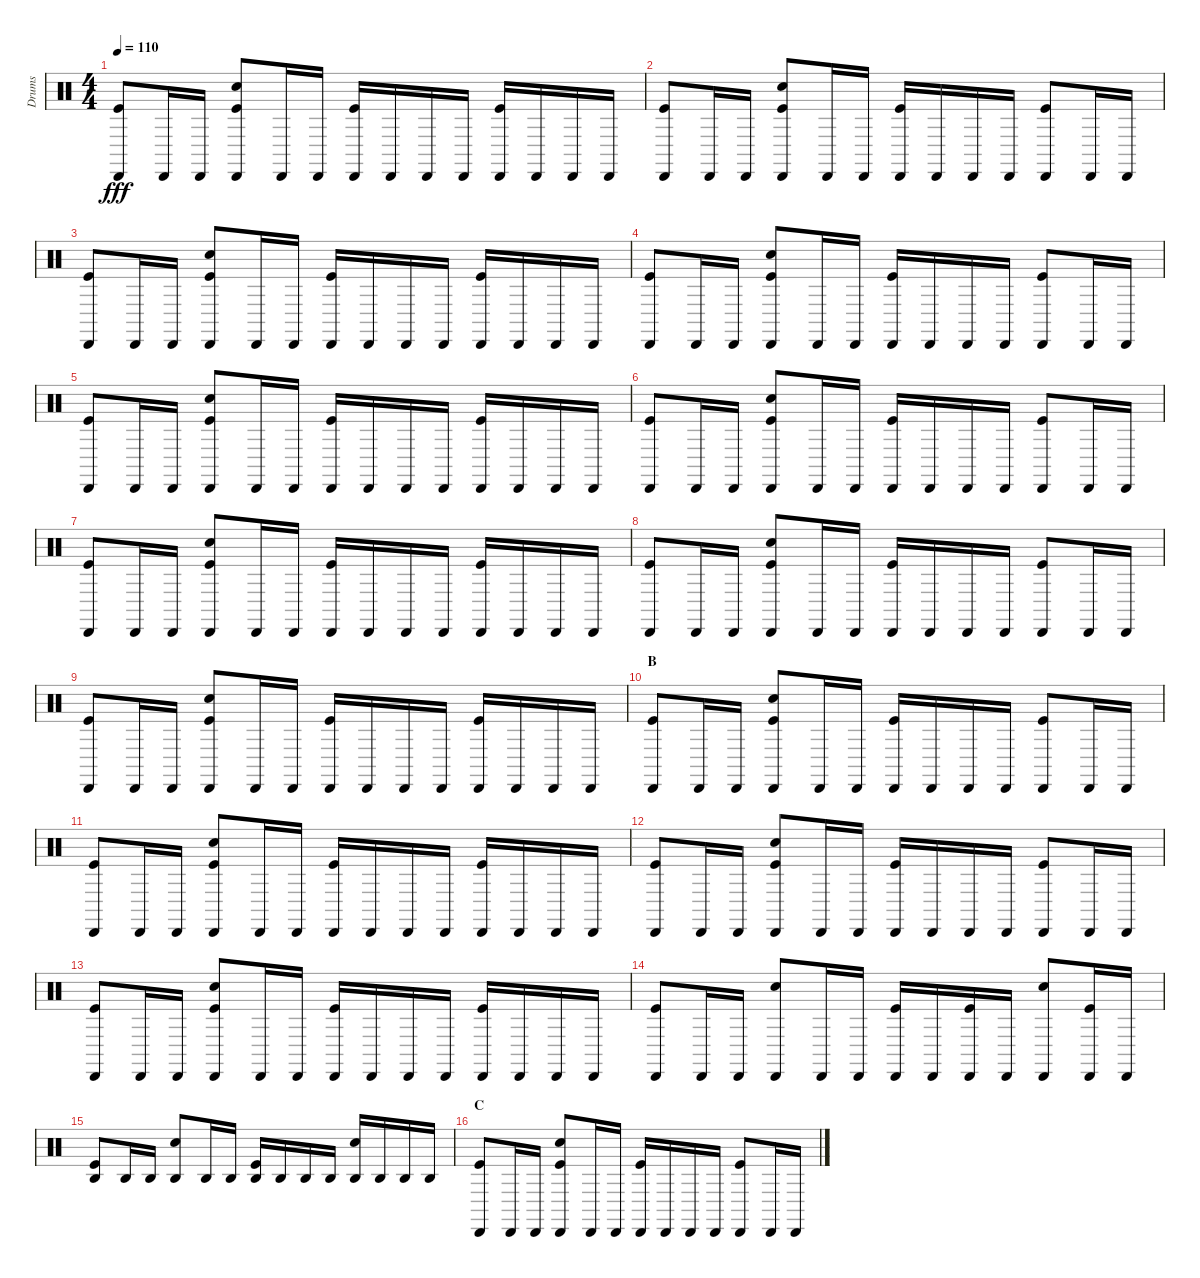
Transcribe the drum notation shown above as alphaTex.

\track ("Drums" "Drums") {instrument percussion}
\staff {score}
\articulation defaults
\ts (4 4)
\tempo 110
\clef neutral
\ks c
("Cabasa (hit)" "Kick (hit)").8{dy fff} "Cabasa (hit)".16 "Cabasa (hit)".16 ("Cabasa (hit)" "Snare (hit) 2" "Kick (hit)").8 "Cabasa (hit)".16 "Cabasa (hit)".16 ("Cabasa (hit)" "Kick (hit)").16 "Cabasa (hit)".16 "Cabasa (hit)".16 "Cabasa (hit)".16 ("Cabasa (hit)" "Kick (hit)").16 "Cabasa (hit)".16 "Cabasa (hit)".16 "Cabasa (hit)".16 |
("Cabasa (hit)" "Kick (hit)").8 "Cabasa (hit)".16 "Cabasa (hit)".16 ("Cabasa (hit)" "Snare (hit) 2" "Kick (hit)").8 "Cabasa (hit)".16 "Cabasa (hit)".16 ("Cabasa (hit)" "Kick (hit)").16 "Cabasa (hit)".16 "Cabasa (hit)".16 "Cabasa (hit)".16 ("Cabasa (hit)" "Kick (hit)").8 "Cabasa (hit)".16 "Cabasa (hit)".16 |
("Cabasa (hit)" "Kick (hit)").8 "Cabasa (hit)".16 "Cabasa (hit)".16 ("Cabasa (hit)" "Snare (hit) 2" "Kick (hit)").8 "Cabasa (hit)".16 "Cabasa (hit)".16 ("Cabasa (hit)" "Kick (hit)").16 "Cabasa (hit)".16 "Cabasa (hit)".16 "Cabasa (hit)".16 ("Cabasa (hit)" "Kick (hit)").16 "Cabasa (hit)".16 "Cabasa (hit)".16 "Cabasa (hit)".16 |
("Cabasa (hit)" "Kick (hit)").8 "Cabasa (hit)".16 "Cabasa (hit)".16 ("Cabasa (hit)" "Snare (hit) 2" "Kick (hit)").8 "Cabasa (hit)".16 "Cabasa (hit)".16 ("Cabasa (hit)" "Kick (hit)").16 "Cabasa (hit)".16 "Cabasa (hit)".16 "Cabasa (hit)".16 ("Cabasa (hit)" "Kick (hit)").8 "Cabasa (hit)".16 "Cabasa (hit)".16 |
("Cabasa (hit)" "Kick (hit)").8 "Cabasa (hit)".16 "Cabasa (hit)".16 ("Cabasa (hit)" "Snare (hit) 2" "Kick (hit)").8 "Cabasa (hit)".16 "Cabasa (hit)".16 ("Cabasa (hit)" "Kick (hit)").16 "Cabasa (hit)".16 "Cabasa (hit)".16 "Cabasa (hit)".16 ("Cabasa (hit)" "Kick (hit)").16 "Cabasa (hit)".16 "Cabasa (hit)".16 "Cabasa (hit)".16 |
("Cabasa (hit)" "Kick (hit)").8 "Cabasa (hit)".16 "Cabasa (hit)".16 ("Cabasa (hit)" "Snare (hit) 2" "Kick (hit)").8 "Cabasa (hit)".16 "Cabasa (hit)".16 ("Cabasa (hit)" "Kick (hit)").16 "Cabasa (hit)".16 "Cabasa (hit)".16 "Cabasa (hit)".16 ("Cabasa (hit)" "Kick (hit)").8 "Cabasa (hit)".16 "Cabasa (hit)".16 |
("Cabasa (hit)" "Kick (hit)").8 "Cabasa (hit)".16 "Cabasa (hit)".16 ("Cabasa (hit)" "Snare (hit) 2" "Kick (hit)").8 "Cabasa (hit)".16 "Cabasa (hit)".16 ("Cabasa (hit)" "Kick (hit)").16 "Cabasa (hit)".16 "Cabasa (hit)".16 "Cabasa (hit)".16 ("Cabasa (hit)" "Kick (hit)").16 "Cabasa (hit)".16 "Cabasa (hit)".16 "Cabasa (hit)".16 |
("Cabasa (hit)" "Kick (hit)").8 "Cabasa (hit)".16 "Cabasa (hit)".16 ("Cabasa (hit)" "Snare (hit) 2" "Kick (hit)").8 "Cabasa (hit)".16 "Cabasa (hit)".16 ("Cabasa (hit)" "Kick (hit)").16 "Cabasa (hit)".16 "Cabasa (hit)".16 "Cabasa (hit)".16 ("Cabasa (hit)" "Kick (hit)").8 "Cabasa (hit)".16 "Cabasa (hit)".16 |
("Cabasa (hit)" "Kick (hit)").8 "Cabasa (hit)".16 "Cabasa (hit)".16 ("Cabasa (hit)" "Snare (hit) 2" "Kick (hit)").8 "Cabasa (hit)".16 "Cabasa (hit)".16 ("Cabasa (hit)" "Kick (hit)").16 "Cabasa (hit)".16 "Cabasa (hit)".16 "Cabasa (hit)".16 ("Cabasa (hit)" "Kick (hit)").16 "Cabasa (hit)".16 "Cabasa (hit)".16 "Cabasa (hit)".16 |
\section ("" "B")
("Cabasa (hit)" "Kick (hit)").8 "Cabasa (hit)".16 "Cabasa (hit)".16 ("Cabasa (hit)" "Snare (hit) 2" "Kick (hit)").8 "Cabasa (hit)".16 "Cabasa (hit)".16 ("Cabasa (hit)" "Kick (hit)").16 "Cabasa (hit)".16 "Cabasa (hit)".16 "Cabasa (hit)".16 ("Cabasa (hit)" "Kick (hit)").8 "Cabasa (hit)".16 "Cabasa (hit)".16 |
("Cabasa (hit)" "Kick (hit)").8 "Cabasa (hit)".16 "Cabasa (hit)".16 ("Cabasa (hit)" "Snare (hit) 2" "Kick (hit)").8 "Cabasa (hit)".16 "Cabasa (hit)".16 ("Cabasa (hit)" "Kick (hit)").16 "Cabasa (hit)".16 "Cabasa (hit)".16 "Cabasa (hit)".16 ("Cabasa (hit)" "Kick (hit)").16 "Cabasa (hit)".16 "Cabasa (hit)".16 "Cabasa (hit)".16 |
("Cabasa (hit)" "Kick (hit)").8 "Cabasa (hit)".16 "Cabasa (hit)".16 ("Cabasa (hit)" "Snare (hit) 2" "Kick (hit)").8 "Cabasa (hit)".16 "Cabasa (hit)".16 ("Cabasa (hit)" "Kick (hit)").16 "Cabasa (hit)".16 "Cabasa (hit)".16 "Cabasa (hit)".16 ("Cabasa (hit)" "Kick (hit)").8 "Cabasa (hit)".16 "Cabasa (hit)".16 |
("Cabasa (hit)" "Kick (hit)").8 "Cabasa (hit)".16 "Cabasa (hit)".16 ("Cabasa (hit)" "Snare (hit) 2" "Kick (hit)").8 "Cabasa (hit)".16 "Cabasa (hit)".16 ("Cabasa (hit)" "Kick (hit)").16 "Cabasa (hit)".16 "Cabasa (hit)".16 "Cabasa (hit)".16 ("Cabasa (hit)" "Kick (hit)").16 "Cabasa (hit)".16 "Cabasa (hit)".16 "Cabasa (hit)".16 |
("Cabasa (hit)" "Kick (hit)").8 "Cabasa (hit)".16 "Cabasa (hit)".16 ("Cabasa (hit)" "Snare (hit) 2").8 "Cabasa (hit)".16 "Cabasa (hit)".16 ("Cabasa (hit)" "Kick (hit)").16 "Cabasa (hit)".16 ("Cabasa (hit)" "Kick (hit)").16 "Cabasa (hit)".16 ("Cabasa (hit)" "Electric Snare (hit)").8 ("Cabasa (hit)" "Kick (hit)").16 "Cabasa (hit)".16 |
("Agogo high (hit)" "Kick (hit)").8 "Agogo high (hit)".16 "Agogo high (hit)".16 ("Agogo high (hit)" "Electric Snare (hit)").8 "Agogo high (hit)".16 "Agogo high (hit)".16 ("Agogo high (hit)" "Kick (hit)").16 "Agogo high (hit)".16 "Agogo high (hit)".16 "Agogo high (hit)".16 ("Agogo high (hit)" "Electric Snare (hit)").16 "Agogo high (hit)".16 "Agogo high (hit)".16 "Agogo high (hit)".16 |
\section ("" "C")
("Cabasa (hit)" "Kick (hit)").8 "Cabasa (hit)".16 "Cabasa (hit)".16 ("Cabasa (hit)" "Snare (hit) 2" "Kick (hit)").8 "Cabasa (hit)".16 "Cabasa (hit)".16 ("Cabasa (hit)" "Kick (hit)").16 "Cabasa (hit)".16 "Cabasa (hit)".16 "Cabasa (hit)".16 ("Cabasa (hit)" "Kick (hit)").8 "Cabasa (hit)".16 "Cabasa (hit)".16
